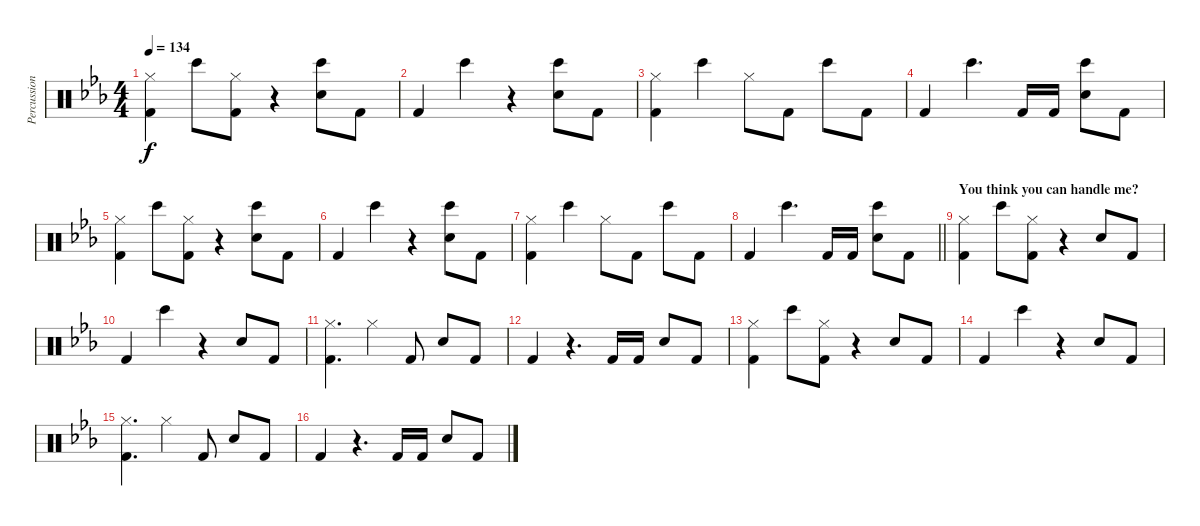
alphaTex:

\track ("Percussion" "Percussion") {instrument percussion}
\staff {score}
\articulation defaults
\ts (4 4)
\tempo 134
\clef neutral
\ks eb
("Hi-Hat (closed)" "Kick (hit) 2").4{dy f} "Bongo High (hit)".8 ("Hi-Hat (closed)" "Kick (hit) 2").8 r.4 ("Hand Clap (hit)" "Bongo High (hit)").8 "Kick (hit) 2".8 |
"Kick (hit) 2".4 "Bongo High (hit)".4 r.4 ("Hand Clap (hit)" "Bongo High (hit)").8 "Kick (hit) 2".8 |
("Hi-Hat (closed)" "Kick (hit) 2").4 "Bongo High (hit)".4 "Hi-Hat (closed)".8 "Kick (hit) 2".8 "Bongo High (hit)".8 "Kick (hit) 2".8 |
"Kick (hit) 2".4 "Bongo High (hit)".4{d} "Kick (hit) 2".16 "Kick (hit) 2".16 ("Hand Clap (hit)" "Bongo High (hit)").8 "Kick (hit) 2".8 |
("Hi-Hat (closed)" "Kick (hit) 2").4 "Bongo High (hit)".8 ("Hi-Hat (closed)" "Kick (hit) 2").8 r.4 ("Hand Clap (hit)" "Bongo High (hit)").8 "Kick (hit) 2".8 |
"Kick (hit) 2".4 "Bongo High (hit)".4 r.4 ("Hand Clap (hit)" "Bongo High (hit)").8 "Kick (hit) 2".8 |
("Hi-Hat (closed)" "Kick (hit) 2").4 "Bongo High (hit)".4 "Hi-Hat (closed)".8 "Kick (hit) 2".8 "Bongo High (hit)".8 "Kick (hit) 2".8 |
\barLineRight lightlight "Kick (hit) 2".4 "Bongo High (hit)".4{d} "Kick (hit) 2".16 "Kick (hit) 2".16
("Hand Clap (hit)" "Bongo High (hit)").8 "Kick (hit) 2".8 |
\section ("" "You think you can handle me?")
("Hi-Hat (closed)" "Kick (hit) 2").4 "Bongo High (hit)".8 ("Hi-Hat (closed)" "Kick (hit) 2").8 r.4 "Hand Clap (hit)".8 "Kick (hit) 2".8 |
"Kick (hit) 2".4 "Bongo High (hit)".4 r.4 "Hand Clap (hit)".8 "Kick (hit) 2".8 |
("Hi-Hat (closed)" "Kick (hit) 2").4{d} "Hi-Hat (closed)".4 "Kick (hit) 2".8 "Hand Clap (hit)".8 "Kick (hit) 2".8 |
"Kick (hit) 2".4 r.4{d} "Kick (hit) 2".16 "Kick (hit) 2".16 "Hand Clap (hit)".8 "Kick (hit) 2".8 |
("Hi-Hat (closed)" "Kick (hit) 2").4 "Bongo High (hit)".8 ("Hi-Hat (closed)" "Kick (hit) 2").8 r.4 "Hand Clap (hit)".8 "Kick (hit) 2".8 |
"Kick (hit) 2".4 "Bongo High (hit)".4 r.4 "Hand Clap (hit)".8 "Kick (hit) 2".8 |
("Hi-Hat (closed)" "Kick (hit) 2").4{d} "Hi-Hat (closed)".4 "Kick (hit) 2".8 "Hand Clap (hit)".8 "Kick (hit) 2".8 |
"Kick (hit) 2".4 r.4{d} "Kick (hit) 2".16 "Kick (hit) 2".16 "Hand Clap (hit)".8 "Kick (hit) 2".8
